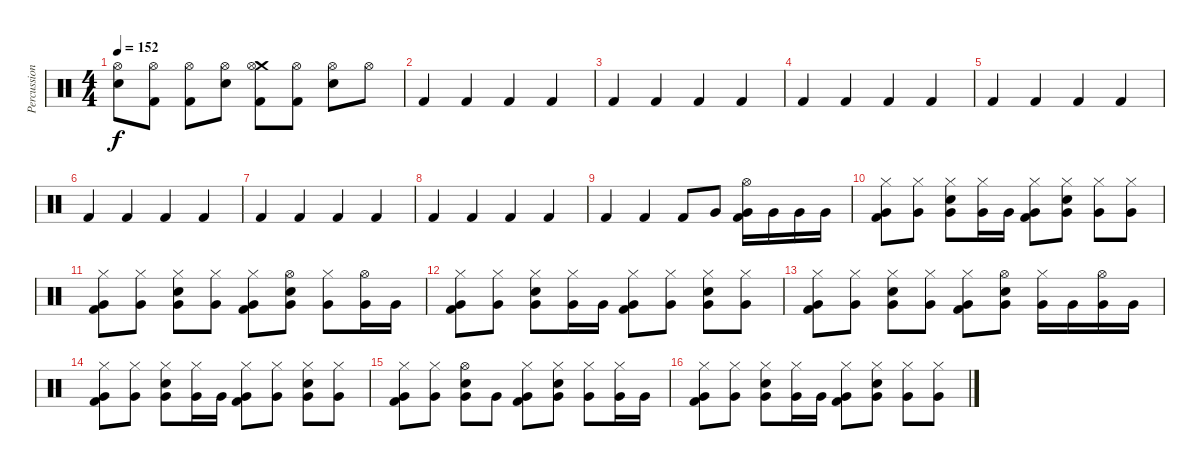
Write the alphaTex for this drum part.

\track ("Percussion" "Percussion") {instrument percussion}
\staff {score}
\articulation defaults
\ts (4 4)
\tempo 152
\clef neutral
\ks c
("Hi-Hat (open)" "Snare (hit) 2").8{dy f} ("Hi-Hat (open)" "Kick (hit) 2").8 ("Hi-Hat (open)" "Kick (hit) 2").8 ("Hi-Hat (open)" "Snare (hit) 2").8 ("Crash medium (hit)" "Hi-Hat (open)" "Kick (hit) 2").8 ("Hi-Hat (open)" "Kick (hit) 2").8 ("Hi-Hat (open)" "Snare (hit) 2").8 "Hi-Hat (open)".8 |
"Kick (hit) 2".4 "Kick (hit) 2".4 "Kick (hit) 2".4 "Kick (hit) 2".4 |
"Kick (hit) 2".4 "Kick (hit) 2".4 "Kick (hit) 2".4 "Kick (hit) 2".4 |
"Kick (hit) 2".4 "Kick (hit) 2".4 "Kick (hit) 2".4 "Kick (hit) 2".4 |
"Kick (hit) 2".4 "Kick (hit) 2".4 "Kick (hit) 2".4 "Kick (hit) 2".4 |
"Kick (hit) 2".4 "Kick (hit) 2".4 "Kick (hit) 2".4 "Kick (hit) 2".4 |
"Kick (hit) 2".4 "Kick (hit) 2".4 "Kick (hit) 2".4 "Kick (hit) 2".4 |
"Kick (hit) 2".4 "Kick (hit) 2".4 "Kick (hit) 2".4 "Kick (hit) 2".4 |
"Kick (hit) 2".4 "Kick (hit) 2".4 "Kick (hit) 2".8 "Very Low Tom (hit)".8 ("Hi-Hat (open)" "Very Low Tom (hit)" "Kick (hit) 2").16 "Very Low Tom (hit)".16 "Very Low Tom (hit)".16 "Very Low Tom (hit)".16 |
("Hi-Hat (closed)" "Very Low Tom (hit)" "Kick (hit) 2").8 ("Hi-Hat (closed)" "Very Low Tom (hit)").8 ("Hi-Hat (closed)" "Very Low Tom (hit)" "Snare (hit) 2").8 ("Hi-Hat (closed)" "Very Low Tom (hit)").16 "Very Low Tom (hit)".16 ("Hi-Hat (closed)" "Very Low Tom (hit)" "Kick (hit) 2").8 ("Hi-Hat (closed)" "Very Low Tom (hit)" "Snare (hit) 2").8 ("Hi-Hat (closed)" "Very Low Tom (hit)").8 ("Hi-Hat (closed)" "Very Low Tom (hit)").8 |
("Hi-Hat (closed)" "Very Low Tom (hit)" "Kick (hit) 2").8 ("Hi-Hat (closed)" "Very Low Tom (hit)").8 ("Hi-Hat (closed)" "Very Low Tom (hit)" "Snare (hit) 2").8 ("Hi-Hat (closed)" "Very Low Tom (hit)").8 ("Hi-Hat (closed)" "Very Low Tom (hit)" "Kick (hit) 2").8 ("Hi-Hat (open)" "Very Low Tom (hit)" "Snare (hit) 2").8 ("Hi-Hat (closed)" "Very Low Tom (hit)").8 ("Hi-Hat (open)" "Very Low Tom (hit)").16 "Very Low Tom (hit)".16 |
("Hi-Hat (closed)" "Very Low Tom (hit)" "Kick (hit) 2").8 ("Hi-Hat (closed)" "Very Low Tom (hit)").8 ("Hi-Hat (closed)" "Very Low Tom (hit)" "Snare (hit) 2").8 ("Hi-Hat (closed)" "Very Low Tom (hit)").16 "Very Low Tom (hit)".16 ("Hi-Hat (closed)" "Very Low Tom (hit)" "Kick (hit) 2").8 ("Hi-Hat (closed)" "Very Low Tom (hit)").8 ("Hi-Hat (closed)" "Very Low Tom (hit)" "Snare (hit) 2").8 ("Hi-Hat (closed)" "Very Low Tom (hit)").8 |
("Hi-Hat (closed)" "Very Low Tom (hit)" "Kick (hit) 2").8 ("Hi-Hat (closed)" "Very Low Tom (hit)").8 ("Hi-Hat (closed)" "Very Low Tom (hit)" "Snare (hit) 2").8 ("Hi-Hat (closed)" "Very Low Tom (hit)").8 ("Hi-Hat (closed)" "Very Low Tom (hit)" "Kick (hit) 2").8 ("Hi-Hat (open)" "Very Low Tom (hit)" "Snare (hit) 2").8 ("Hi-Hat (closed)" "Very Low Tom (hit)").16 "Very Low Tom (hit)".16 ("Hi-Hat (open)" "Very Low Tom (hit)").16 "Very Low Tom (hit)".16 |
("Hi-Hat (closed)" "Very Low Tom (hit)" "Kick (hit) 2").8 ("Hi-Hat (closed)" "Very Low Tom (hit)").8 ("Hi-Hat (closed)" "Very Low Tom (hit)" "Snare (hit) 2").8 ("Hi-Hat (closed)" "Very Low Tom (hit)").16 "Very Low Tom (hit)".16 ("Hi-Hat (closed)" "Very Low Tom (hit)" "Kick (hit) 2").8 ("Hi-Hat (closed)" "Very Low Tom (hit)").8 ("Hi-Hat (closed)" "Very Low Tom (hit)" "Snare (hit) 2").8 ("Hi-Hat (closed)" "Very Low Tom (hit)").8 |
("Hi-Hat (closed)" "Very Low Tom (hit)" "Kick (hit) 2").8 ("Hi-Hat (closed)" "Very Low Tom (hit)").8 ("Hi-Hat (open)" "Very Low Tom (hit)" "Snare (hit) 2").8 "Very Low Tom (hit)".8 ("Hi-Hat (closed)" "Very Low Tom (hit)" "Kick (hit) 2").8 ("Hi-Hat (closed)" "Very Low Tom (hit)" "Snare (hit) 2").8 ("Hi-Hat (closed)" "Very Low Tom (hit)").8 ("Hi-Hat (closed)" "Very Low Tom (hit)").16 "Very Low Tom (hit)".16 |
("Hi-Hat (closed)" "Very Low Tom (hit)" "Kick (hit) 2").8 ("Hi-Hat (closed)" "Very Low Tom (hit)").8 ("Hi-Hat (closed)" "Very Low Tom (hit)" "Snare (hit) 2").8 ("Hi-Hat (closed)" "Very Low Tom (hit)").16 "Very Low Tom (hit)".16 ("Hi-Hat (closed)" "Very Low Tom (hit)" "Kick (hit) 2").8 ("Hi-Hat (closed)" "Very Low Tom (hit)" "Snare (hit) 2").8 ("Hi-Hat (closed)" "Very Low Tom (hit)").8 ("Hi-Hat (closed)" "Very Low Tom (hit)").8
